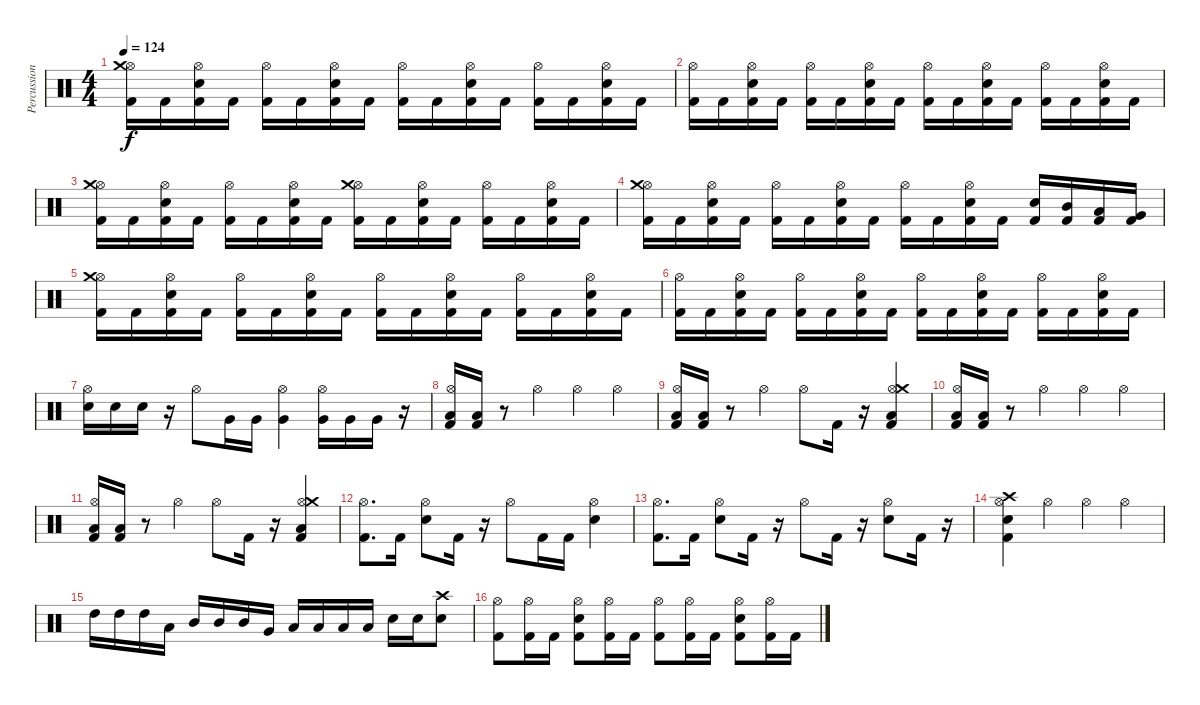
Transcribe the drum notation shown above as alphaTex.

\track ("Percussion" "Percussion") {instrument percussion}
\staff {score}
\articulation defaults
\ts (4 4)
\tempo 124
\clef neutral
\ks c
("Kick (hit) 2" "Hi-Hat (open)" "Crash medium (hit)").16{dy f} "Kick (hit) 2".16 ("Kick (hit) 2" "Electric Snare (hit)" "Hi-Hat (open)").16 "Kick (hit) 2".16 ("Kick (hit) 2" "Hi-Hat (open)").16 "Kick (hit) 2".16 ("Kick (hit) 2" "Electric Snare (hit)" "Hi-Hat (open)").16 "Kick (hit) 2".16 ("Kick (hit) 2" "Hi-Hat (open)").16 "Kick (hit) 2".16 ("Kick (hit) 2" "Electric Snare (hit)" "Hi-Hat (open)").16 "Kick (hit) 2".16 ("Kick (hit) 2" "Hi-Hat (open)").16 "Kick (hit) 2".16 ("Kick (hit) 2" "Electric Snare (hit)" "Hi-Hat (open)").16 "Kick (hit) 2".16 |
("Kick (hit) 2" "Hi-Hat (open)").16 "Kick (hit) 2".16 ("Kick (hit) 2" "Electric Snare (hit)" "Hi-Hat (open)").16 "Kick (hit) 2".16 ("Kick (hit) 2" "Hi-Hat (open)").16 "Kick (hit) 2".16 ("Kick (hit) 2" "Electric Snare (hit)" "Hi-Hat (open)").16 "Kick (hit) 2".16 ("Kick (hit) 2" "Hi-Hat (open)").16 "Kick (hit) 2".16 ("Kick (hit) 2" "Electric Snare (hit)" "Hi-Hat (open)").16 "Kick (hit) 2".16 ("Kick (hit) 2" "Hi-Hat (open)").16 "Kick (hit) 2".16 ("Kick (hit) 2" "Electric Snare (hit)" "Hi-Hat (open)").16 "Kick (hit) 2".16 |
("Kick (hit) 2" "Hi-Hat (open)" "Crash medium (hit)").16 "Kick (hit) 2".16 ("Kick (hit) 2" "Electric Snare (hit)" "Hi-Hat (open)").16 "Kick (hit) 2".16 ("Kick (hit) 2" "Hi-Hat (open)").16 "Kick (hit) 2".16 ("Kick (hit) 2" "Electric Snare (hit)" "Hi-Hat (open)").16 "Kick (hit) 2".16 ("Kick (hit) 2" "Hi-Hat (open)" "Crash medium (hit)").16 "Kick (hit) 2".16 ("Kick (hit) 2" "Electric Snare (hit)" "Hi-Hat (open)").16 "Kick (hit) 2".16 ("Kick (hit) 2" "Hi-Hat (open)").16 "Kick (hit) 2".16 ("Kick (hit) 2" "Electric Snare (hit)" "Hi-Hat (open)").16 "Kick (hit) 2".16 |
("Kick (hit) 2" "Hi-Hat (open)" "Crash medium (hit)").16 "Kick (hit) 2".16 ("Kick (hit) 2" "Electric Snare (hit)" "Hi-Hat (open)").16 "Kick (hit) 2".16 ("Kick (hit) 2" "Hi-Hat (open)").16 "Kick (hit) 2".16 ("Kick (hit) 2" "Electric Snare (hit)" "Hi-Hat (open)").16 "Kick (hit) 2".16 ("Kick (hit) 2" "Hi-Hat (open)").16 "Kick (hit) 2".16 ("Kick (hit) 2" "Electric Snare (hit)" "Hi-Hat (open)").16 "Kick (hit) 2".16 ("Kick (hit) 2" "Electric Snare (hit)").16 ("Kick (hit) 2" "Mid Tom (hit)").16 ("Kick (hit) 2" "Low Tom (hit)").16 ("Kick (hit) 2" "Very Low Tom (hit)").16 |
("Kick (hit) 2" "Hi-Hat (open)" "Crash medium (hit)").16 "Kick (hit) 2".16 ("Kick (hit) 2" "Electric Snare (hit)" "Hi-Hat (open)").16 "Kick (hit) 2".16 ("Kick (hit) 2" "Hi-Hat (open)").16 "Kick (hit) 2".16 ("Kick (hit) 2" "Electric Snare (hit)" "Hi-Hat (open)").16 "Kick (hit) 2".16 ("Kick (hit) 2" "Hi-Hat (open)").16 "Kick (hit) 2".16 ("Kick (hit) 2" "Electric Snare (hit)" "Hi-Hat (open)").16 "Kick (hit) 2".16 ("Kick (hit) 2" "Hi-Hat (open)").16 "Kick (hit) 2".16 ("Kick (hit) 2" "Electric Snare (hit)" "Hi-Hat (open)").16 "Kick (hit) 2".16 |
("Kick (hit) 2" "Hi-Hat (open)").16 "Kick (hit) 2".16 ("Kick (hit) 2" "Electric Snare (hit)" "Hi-Hat (open)").16 "Kick (hit) 2".16 ("Kick (hit) 2" "Hi-Hat (open)").16 "Kick (hit) 2".16 ("Kick (hit) 2" "Electric Snare (hit)" "Hi-Hat (open)").16 "Kick (hit) 2".16 ("Kick (hit) 2" "Hi-Hat (open)").16 "Kick (hit) 2".16 ("Kick (hit) 2" "Electric Snare (hit)" "Hi-Hat (open)").16 "Kick (hit) 2".16 ("Kick (hit) 2" "Hi-Hat (open)").16 "Kick (hit) 2".16 ("Kick (hit) 2" "Electric Snare (hit)" "Hi-Hat (open)").16 "Kick (hit) 2".16 |
("Electric Snare (hit)" "Hi-Hat (open)").16 "Electric Snare (hit)".16 "Electric Snare (hit)".16 r.16 "Hi-Hat (open)".8 "Very Low Tom (hit)".16 "Very Low Tom (hit)".16 ("Very Low Tom (hit)" "Hi-Hat (open)").4 ("Very Low Tom (hit)" "Hi-Hat (open)").16 "Very Low Tom (hit)".16 "Very Low Tom (hit)".16 r.16 |
("Kick (hit) 2" "Low Floor Tom (hit)" "Hi-Hat (open)").16 ("Kick (hit) 2" "Low Floor Tom (hit)").16 r.8 "Hi-Hat (open)".4 "Hi-Hat (open)".4 "Hi-Hat (open)".4 |
("Kick (hit) 2" "Low Floor Tom (hit)" "Hi-Hat (open)").16 ("Kick (hit) 2" "Low Floor Tom (hit)").16 r.8 "Hi-Hat (open)".4 "Hi-Hat (open)".8 "Kick (hit) 2".16 r.16 ("Kick (hit) 2" "Low Floor Tom (hit)" "Hi-Hat (open)" "Crash medium (hit)").4 |
("Kick (hit) 2" "Low Floor Tom (hit)" "Hi-Hat (open)").16 ("Kick (hit) 2" "Low Floor Tom (hit)").16 r.8 "Hi-Hat (open)".4 "Hi-Hat (open)".4 "Hi-Hat (open)".4 |
("Kick (hit) 2" "Low Floor Tom (hit)" "Hi-Hat (open)").16 ("Kick (hit) 2" "Low Floor Tom (hit)").16 r.8 "Hi-Hat (open)".4 "Hi-Hat (open)".8 "Kick (hit) 2".16 r.16 ("Kick (hit) 2" "Low Floor Tom (hit)" "Hi-Hat (open)" "Crash medium (hit)").4 |
("Kick (hit) 2" "Hi-Hat (open)").8{d} "Kick (hit) 2".16 ("Electric Snare (hit)" "Hi-Hat (open)").8 "Kick (hit) 2".16 r.16 "Hi-Hat (open)".8 "Kick (hit) 2".16 "Kick (hit) 2".16 ("Electric Snare (hit)" "Hi-Hat (open)").4 |
("Kick (hit) 2" "Hi-Hat (open)").8{d} "Kick (hit) 2".16 ("Electric Snare (hit)" "Hi-Hat (open)").8 "Kick (hit) 2".16 r.16 "Hi-Hat (open)".8 "Kick (hit) 2".16 r.16 ("Electric Snare (hit)" "Hi-Hat (open)").8 "Kick (hit) 2".16 r.16 |
("Kick (hit) 2" "Electric Snare (hit)" "Hi-Hat (open)" "Crash high (hit)").4 "Hi-Hat (open)".4 "Hi-Hat (open)".4 "Hi-Hat (open)".4 |
"High Tom (hit)".16 "High Tom (hit)".16 "High Tom (hit)".16 "Low Tom (hit)".16 "Mid Tom (hit)".16 "Mid Tom (hit)".16 "Mid Tom (hit)".16 "Very Low Tom (hit)".16 "Low Tom (hit)".16 "Low Tom (hit)".16 "Low Tom (hit)".16 "Low Floor Tom (hit)".16 "Electric Snare (hit)".16 "Electric Snare (hit)".16 ("Electric Snare (hit)" "Crash high (hit)").8 |
("Kick (hit) 2" "Hi-Hat (open)").8 ("Kick (hit) 2" "Hi-Hat (open)").16 "Kick (hit) 2".16 ("Kick (hit) 2" "Electric Snare (hit)" "Hi-Hat (open)").8 ("Kick (hit) 2" "Hi-Hat (open)").16 "Kick (hit) 2".16 ("Kick (hit) 2" "Hi-Hat (open)").8 ("Kick (hit) 2" "Hi-Hat (open)").16 "Kick (hit) 2".16 ("Kick (hit) 2" "Electric Snare (hit)" "Hi-Hat (open)").8 ("Kick (hit) 2" "Hi-Hat (open)").16 "Kick (hit) 2".16
